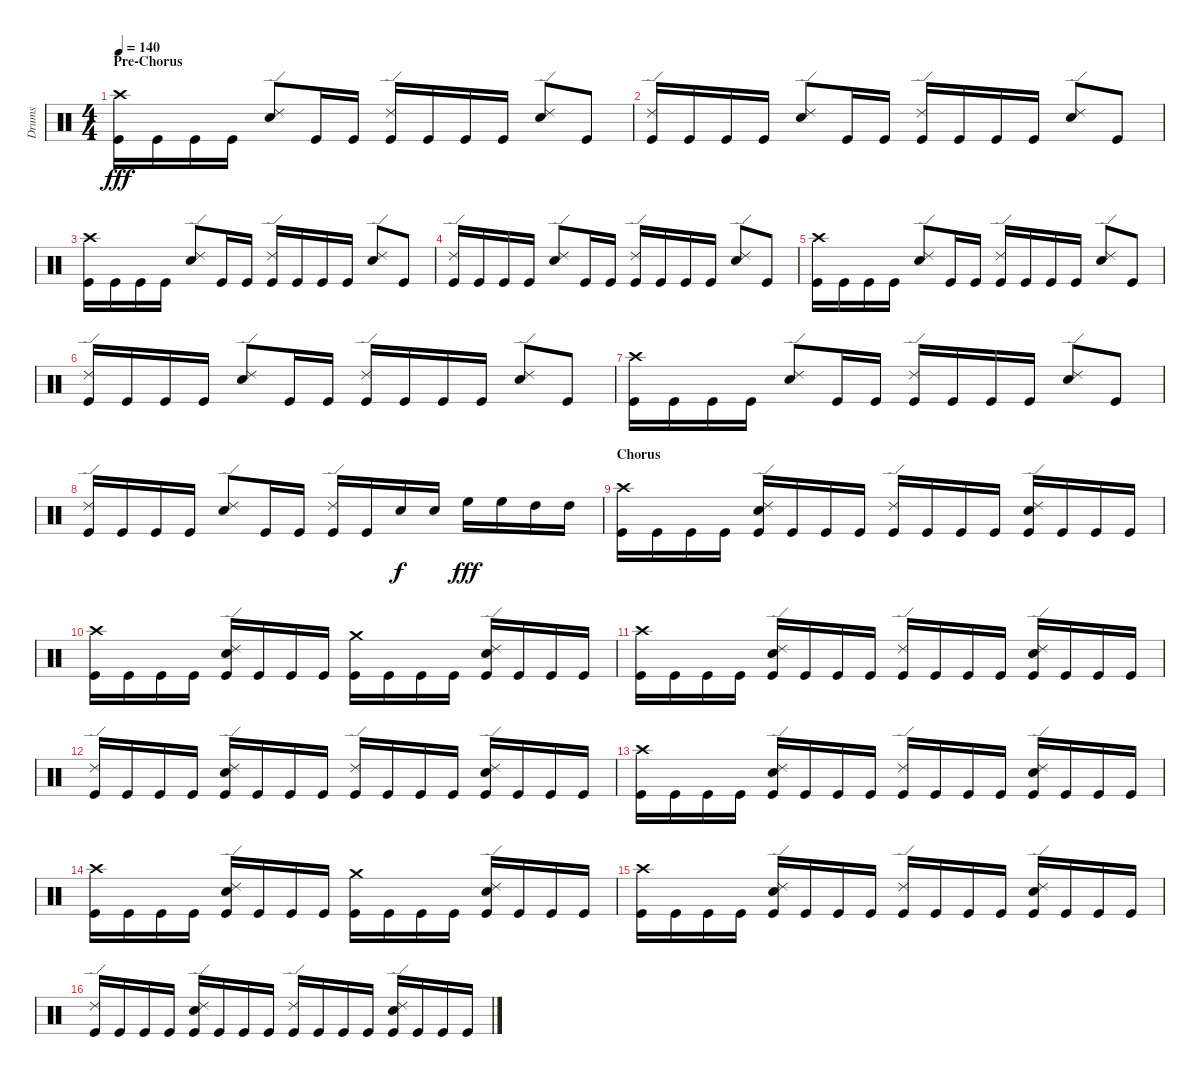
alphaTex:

\track ("Drums" "Drums") {instrument percussion}
\staff {score}
\articulation defaults
\ts (4 4)
\section ("" "Pre-Chorus")
\tempo 140
\clef neutral
\ks c
("Crash high (hit)" "Kick (hit)").16{dy fff} "Kick (hit)".16 "Kick (hit)".16 "Kick (hit)".16 ("Ride (edge) 2" "Snare (hit) 2").8 "Kick (hit)".16 "Kick (hit)".16 ("Ride (edge) 2" "Kick (hit)").16 "Kick (hit)".16 "Kick (hit)".16 "Kick (hit)".16 ("Ride (edge) 2" "Snare (hit) 2").8 "Kick (hit)".8 |
("Ride (edge) 2" "Kick (hit)").16 "Kick (hit)".16 "Kick (hit)".16 "Kick (hit)".16 ("Ride (edge) 2" "Snare (hit) 2").8 "Kick (hit)".16 "Kick (hit)".16 ("Ride (edge) 2" "Kick (hit)").16 "Kick (hit)".16 "Kick (hit)".16 "Kick (hit)".16 ("Ride (edge) 2" "Snare (hit) 2").8 "Kick (hit)".8 |
("Crash high (hit)" "Kick (hit)").16 "Kick (hit)".16 "Kick (hit)".16 "Kick (hit)".16 ("Ride (edge) 2" "Snare (hit) 2").8 "Kick (hit)".16 "Kick (hit)".16 ("Ride (edge) 2" "Kick (hit)").16 "Kick (hit)".16 "Kick (hit)".16 "Kick (hit)".16 ("Ride (edge) 2" "Snare (hit) 2").8 "Kick (hit)".8 |
("Ride (edge) 2" "Kick (hit)").16 "Kick (hit)".16 "Kick (hit)".16 "Kick (hit)".16 ("Ride (edge) 2" "Snare (hit) 2").8 "Kick (hit)".16 "Kick (hit)".16 ("Ride (edge) 2" "Kick (hit)").16 "Kick (hit)".16 "Kick (hit)".16 "Kick (hit)".16 ("Ride (edge) 2" "Snare (hit) 2").8 "Kick (hit)".8 |
("Crash high (hit)" "Kick (hit)").16 "Kick (hit)".16 "Kick (hit)".16 "Kick (hit)".16 ("Ride (edge) 2" "Snare (hit) 2").8 "Kick (hit)".16 "Kick (hit)".16 ("Ride (edge) 2" "Kick (hit)").16 "Kick (hit)".16 "Kick (hit)".16 "Kick (hit)".16 ("Ride (edge) 2" "Snare (hit) 2").8 "Kick (hit)".8 |
("Ride (edge) 2" "Kick (hit)").16 "Kick (hit)".16 "Kick (hit)".16 "Kick (hit)".16 ("Ride (edge) 2" "Snare (hit) 2").8 "Kick (hit)".16 "Kick (hit)".16 ("Ride (edge) 2" "Kick (hit)").16 "Kick (hit)".16 "Kick (hit)".16 "Kick (hit)".16 ("Ride (edge) 2" "Snare (hit) 2").8 "Kick (hit)".8 |
("Crash high (hit)" "Kick (hit)").16 "Kick (hit)".16 "Kick (hit)".16 "Kick (hit)".16 ("Ride (edge) 2" "Snare (hit) 2").8 "Kick (hit)".16 "Kick (hit)".16 ("Ride (edge) 2" "Kick (hit)").16 "Kick (hit)".16 "Kick (hit)".16 "Kick (hit)".16 ("Ride (edge) 2" "Snare (hit) 2").8 "Kick (hit)".8 |
("Ride (edge) 2" "Kick (hit)").16 "Kick (hit)".16 "Kick (hit)".16 "Kick (hit)".16 ("Ride (edge) 2" "Snare (hit) 2").8 "Kick (hit)".16 "Kick (hit)".16 ("Ride (edge) 2" "Kick (hit)").16 "Kick (hit)".16 "Snare (hit) 2".16{dy f} "Snare (hit) 2".16 "High Floor Tom (hit)".16{dy fff} "High Floor Tom (hit)".16 "High Tom (hit)".16 "High Tom (hit)".16 |
\section ("" "Chorus")
("Crash high (hit)" "Kick (hit)").16 "Kick (hit)".16 "Kick (hit)".16 "Kick (hit)".16 ("Ride (edge) 2" "Snare (hit) 2" "Kick (hit)").16 "Kick (hit)".16 "Kick (hit)".16 "Kick (hit)".16 ("Ride (edge) 2" "Kick (hit)").16 "Kick (hit)".16 "Kick (hit)".16 "Kick (hit)".16 ("Ride (edge) 2" "Snare (hit) 2" "Kick (hit)").16 "Kick (hit)".16 "Kick (hit)".16 "Kick (hit)".16 |
("Crash high (hit)" "Kick (hit)").16 "Kick (hit)".16 "Kick (hit)".16 "Kick (hit)".16 ("Ride (edge) 2" "Snare (hit) 2" "Kick (hit)").16 "Kick (hit)".16 "Kick (hit)".16 "Kick (hit)".16 ("Crash medium (hit)" "Kick (hit)").16 "Kick (hit)".16 "Kick (hit)".16 "Kick (hit)".16 ("Ride (edge) 2" "Snare (hit) 2" "Kick (hit)").16 "Kick (hit)".16 "Kick (hit)".16 "Kick (hit)".16 |
("Crash high (hit)" "Kick (hit)").16 "Kick (hit)".16 "Kick (hit)".16 "Kick (hit)".16 ("Ride (edge) 2" "Snare (hit) 2" "Kick (hit)").16 "Kick (hit)".16 "Kick (hit)".16 "Kick (hit)".16 ("Ride (edge) 2" "Kick (hit)").16 "Kick (hit)".16 "Kick (hit)".16 "Kick (hit)".16 ("Ride (edge) 2" "Snare (hit) 2" "Kick (hit)").16 "Kick (hit)".16 "Kick (hit)".16 "Kick (hit)".16 |
("Ride (edge) 2" "Kick (hit)").16 "Kick (hit)".16 "Kick (hit)".16 "Kick (hit)".16 ("Ride (edge) 2" "Snare (hit) 2" "Kick (hit)").16 "Kick (hit)".16 "Kick (hit)".16 "Kick (hit)".16 ("Ride (edge) 2" "Kick (hit)").16 "Kick (hit)".16 "Kick (hit)".16 "Kick (hit)".16 ("Ride (edge) 2" "Snare (hit) 2" "Kick (hit)").16 "Kick (hit)".16 "Kick (hit)".16 "Kick (hit)".16 |
("Crash high (hit)" "Kick (hit)").16 "Kick (hit)".16 "Kick (hit)".16 "Kick (hit)".16 ("Ride (edge) 2" "Snare (hit) 2" "Kick (hit)").16 "Kick (hit)".16 "Kick (hit)".16 "Kick (hit)".16 ("Ride (edge) 2" "Kick (hit)").16 "Kick (hit)".16 "Kick (hit)".16 "Kick (hit)".16 ("Ride (edge) 2" "Snare (hit) 2" "Kick (hit)").16 "Kick (hit)".16 "Kick (hit)".16 "Kick (hit)".16 |
("Crash high (hit)" "Kick (hit)").16 "Kick (hit)".16 "Kick (hit)".16 "Kick (hit)".16 ("Ride (edge) 2" "Snare (hit) 2" "Kick (hit)").16 "Kick (hit)".16 "Kick (hit)".16 "Kick (hit)".16 ("Crash medium (hit)" "Kick (hit)").16 "Kick (hit)".16 "Kick (hit)".16 "Kick (hit)".16 ("Ride (edge) 2" "Snare (hit) 2" "Kick (hit)").16 "Kick (hit)".16 "Kick (hit)".16 "Kick (hit)".16 |
("Crash high (hit)" "Kick (hit)").16 "Kick (hit)".16 "Kick (hit)".16 "Kick (hit)".16 ("Ride (edge) 2" "Snare (hit) 2" "Kick (hit)").16 "Kick (hit)".16 "Kick (hit)".16 "Kick (hit)".16 ("Ride (edge) 2" "Kick (hit)").16 "Kick (hit)".16 "Kick (hit)".16 "Kick (hit)".16 ("Ride (edge) 2" "Snare (hit) 2" "Kick (hit)").16 "Kick (hit)".16 "Kick (hit)".16 "Kick (hit)".16 |
("Ride (edge) 2" "Kick (hit)").16 "Kick (hit)".16 "Kick (hit)".16 "Kick (hit)".16 ("Ride (edge) 2" "Snare (hit) 2" "Kick (hit)").16 "Kick (hit)".16 "Kick (hit)".16 "Kick (hit)".16 ("Ride (edge) 2" "Kick (hit)").16 "Kick (hit)".16 "Kick (hit)".16 "Kick (hit)".16 ("Ride (edge) 2" "Snare (hit) 2" "Kick (hit)").16 "Kick (hit)".16 "Kick (hit)".16 "Kick (hit)".16
